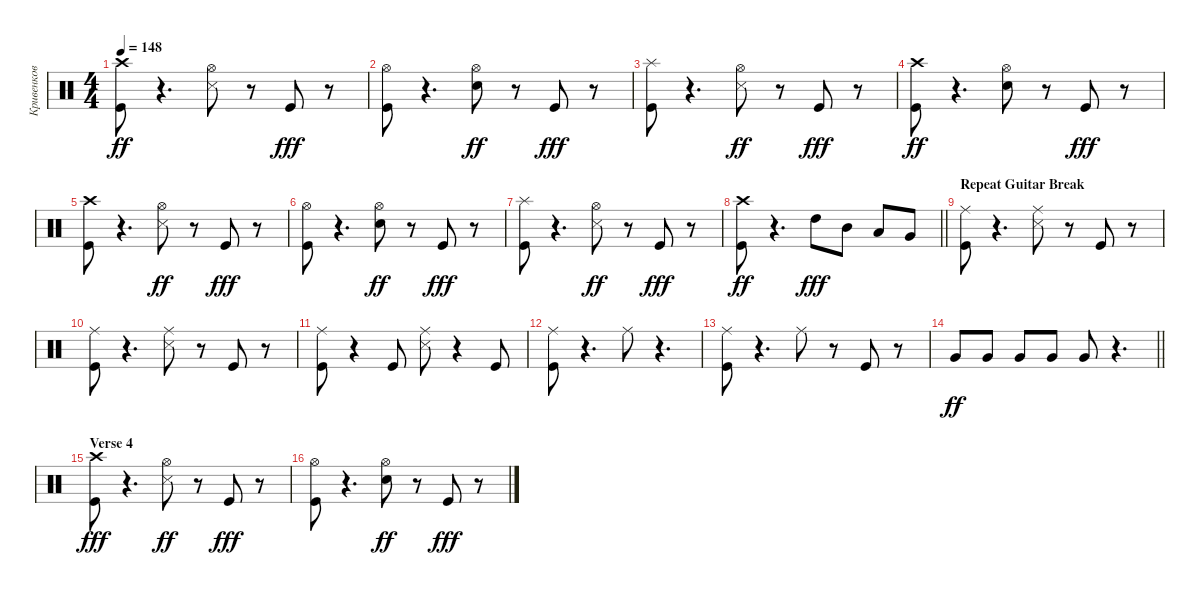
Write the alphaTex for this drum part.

\track ("Кривенков" "Кривенков") {instrument percussion}
\staff {score}
\articulation defaults
\ts (4 4)
\tempo 148
\clef neutral
\ks c
("Kick (hit)" "Crash high (hit)").8{dy ff} r.4{d} ("Snare (side stick) 3" "Hi-Hat (open)").8 r.8 "Kick (hit)".8{dy fff} r.8 |
("Hi-Hat (open)" "Kick (hit)").8 r.4{d} ("Hi-Hat (open)" "Snare (hit) 2").8{dy ff} r.8 "Kick (hit)".8{dy fff} r.8 |
("Splash (hit)" "Kick (hit)").8 r.4{d} ("Hi-Hat (open)" "Snare (side stick) 3").8{dy ff} r.8 "Kick (hit)".8{dy fff} r.8 |
("Kick (hit)" "Crash high (hit)").8{dy ff} r.4{d} ("Hi-Hat (open)" "Snare (hit) 2").8 r.8 "Kick (hit)".8{dy fff} r.8 |
("Crash high (hit)" "Kick (hit)").8 r.4{d} ("Snare (side stick) 3" "Hi-Hat (open)").8{dy ff} r.8 "Kick (hit)".8{dy fff} r.8 |
("Hi-Hat (open)" "Kick (hit)").8 r.4{d} ("Hi-Hat (open)" "Snare (hit) 2").8{dy ff} r.8 "Kick (hit)".8{dy fff} r.8 |
("Splash (hit)" "Kick (hit)").8 r.4{d} ("Snare (side stick) 3" "Hi-Hat (open)").8{dy ff} r.8 "Kick (hit)".8{dy fff} r.8 |
\barLineRight lightlight
("Kick (hit)" "Crash high (hit)").8{dy ff} r.4{d} "High Tom (hit)".8{dy fff} "Mid Tom (hit)".8 "Low Tom (hit)".8 "Very Low Tom (hit)".8 |
\section ("" "Repeat Guitar Break")
("Ride (middle)" "Kick (hit)").8 r.4{d} ("Snare (side stick) 3" "Ride (middle)").8 r.8 "Kick (hit)".8 r.8 |
("Ride (middle)" "Kick (hit)").8 r.4{d} ("Snare (side stick) 3" "Ride (middle)").8 r.8 "Kick (hit)".8 r.8 |
("Ride (middle)" "Kick (hit)").8 r.4 "Kick (hit)".8 ("Snare (side stick) 3" "Ride (middle)").8 r.4 "Kick (hit)".8 |
("Ride (middle)" "Kick (hit)").8 r.4{d} "Ride (middle)".8 r.4{d} |
("Ride (middle)" "Kick (hit)").8 r.4{d} "Ride (middle)".8 r.8 "Kick (hit)".8 r.8 |
\barLineRight lightlight "Very Low Tom (hit)".8{dy ff} "Very Low Tom (hit)".8 "Very Low Tom (hit)".8 "Very Low Tom (hit)".8 "Very Low Tom (hit)".8
r.4{d} |
\section ("" "Verse 4")
("Crash high (hit)" "Kick (hit)").8{dy fff} r.4{d} ("Hi-Hat (open)" "Snare (side stick) 3").8{dy ff} r.8 "Kick (hit)".8{dy fff} r.8 |
("Hi-Hat (open)" "Kick (hit)").8 r.4{d} ("Hi-Hat (open)" "Snare (hit) 2").8{dy ff} r.8 "Kick (hit)".8{dy fff} r.8
